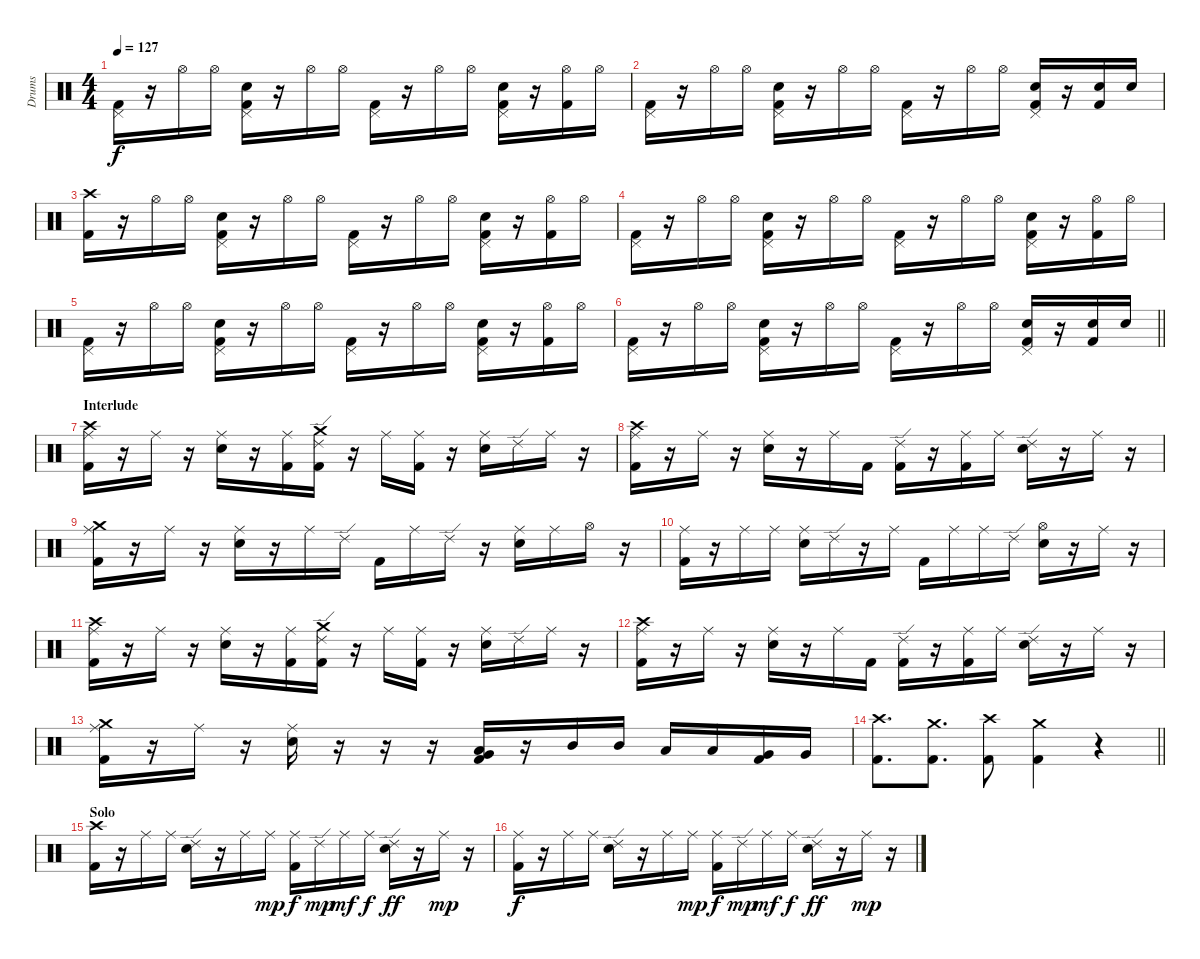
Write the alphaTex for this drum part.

\track ("Drums" "Drums") {instrument percussion}
\staff {score}
\articulation defaults
\ts (4 4)
\tempo 127
\clef neutral
\ks c
("Pedal Hi-Hat (hit)" "Kick (hit) 2").16{dy f} r.16 "Hi-Hat (open)".16 "Hi-Hat (open)".16 ("Pedal Hi-Hat (hit)" "Snare (hit) 2" "Kick (hit) 2").16 r.16 "Hi-Hat (open)".16 "Hi-Hat (open)".16 ("Pedal Hi-Hat (hit)" "Kick (hit) 2").16 r.16 "Hi-Hat (open)".16 "Hi-Hat (open)".16 ("Pedal Hi-Hat (hit)" "Snare (hit) 2" "Kick (hit) 2").16 r.16 ("Hi-Hat (open)" "Kick (hit) 2").16 "Hi-Hat (open)".16 |
("Pedal Hi-Hat (hit)" "Kick (hit) 2").16 r.16 "Hi-Hat (open)".16 "Hi-Hat (open)".16 ("Pedal Hi-Hat (hit)" "Snare (hit) 2" "Kick (hit) 2").16 r.16 "Hi-Hat (open)".16 "Hi-Hat (open)".16 ("Pedal Hi-Hat (hit)" "Kick (hit) 2").16 r.16 "Hi-Hat (open)".16 "Hi-Hat (open)".16 ("Pedal Hi-Hat (hit)" "Snare (hit) 2" "Kick (hit) 2").16 r.16 ("Snare (hit) 2" "Kick (hit) 2").16 "Snare (hit) 2".16 |
("Crash high (hit)" "Kick (hit) 2").16 r.16 "Hi-Hat (open)".16 "Hi-Hat (open)".16 ("Pedal Hi-Hat (hit)" "Snare (hit) 2" "Kick (hit) 2").16 r.16 "Hi-Hat (open)".16 "Hi-Hat (open)".16 ("Pedal Hi-Hat (hit)" "Kick (hit) 2").16 r.16 "Hi-Hat (open)".16 "Hi-Hat (open)".16 ("Pedal Hi-Hat (hit)" "Snare (hit) 2" "Kick (hit) 2").16 r.16 ("Hi-Hat (open)" "Kick (hit) 2").16 "Hi-Hat (open)".16 |
("Pedal Hi-Hat (hit)" "Kick (hit) 2").16 r.16 "Hi-Hat (open)".16 "Hi-Hat (open)".16 ("Pedal Hi-Hat (hit)" "Snare (hit) 2" "Kick (hit) 2").16 r.16 "Hi-Hat (open)".16 "Hi-Hat (open)".16 ("Pedal Hi-Hat (hit)" "Kick (hit) 2").16 r.16 "Hi-Hat (open)".16 "Hi-Hat (open)".16 ("Pedal Hi-Hat (hit)" "Snare (hit) 2" "Kick (hit) 2").16 r.16 ("Hi-Hat (open)" "Kick (hit) 2").16 "Hi-Hat (open)".16 |
("Pedal Hi-Hat (hit)" "Kick (hit) 2").16 r.16 "Hi-Hat (open)".16 "Hi-Hat (open)".16 ("Pedal Hi-Hat (hit)" "Snare (hit) 2" "Kick (hit) 2").16 r.16 "Hi-Hat (open)".16 "Hi-Hat (open)".16 ("Pedal Hi-Hat (hit)" "Kick (hit) 2").16 r.16 "Hi-Hat (open)".16 "Hi-Hat (open)".16 ("Pedal Hi-Hat (hit)" "Snare (hit) 2" "Kick (hit) 2").16 r.16 ("Hi-Hat (open)" "Kick (hit) 2").16 "Hi-Hat (open)".16 |
\barLineRight lightlight
("Pedal Hi-Hat (hit)" "Kick (hit) 2").16 r.16 "Hi-Hat (open)".16 "Hi-Hat (open)".16 ("Pedal Hi-Hat (hit)" "Snare (hit) 2" "Kick (hit) 2").16 r.16 "Hi-Hat (open)".16 "Hi-Hat (open)".16 ("Pedal Hi-Hat (hit)" "Kick (hit) 2").16 r.16 "Hi-Hat (open)".16 "Hi-Hat (open)".16 ("Pedal Hi-Hat (hit)" "Snare (hit) 2" "Kick (hit) 2").16 r.16 ("Snare (hit) 2" "Kick (hit) 2").16 "Snare (hit) 2".16 |
\section ("" "Interlude")
("Crash high (hit)" "Ride (middle)" "Kick (hit) 2").16 r.16 "Ride (middle)".16 r.16 ("Ride (middle)" "Snare (hit) 2").16 r.16 ("Ride (middle)" "Kick (hit) 2").16 ("Crash medium (hit)" "Ride (edge) 2" "Kick (hit) 2").16 r.16 "Ride (middle)".16 ("Ride (middle)" "Kick (hit) 2").16 r.16 ("Ride (middle)" "Snare (hit) 2").16 "Ride (edge) 2".16 "Ride (middle)".16 r.16 |
("Crash high (hit)" "Ride (middle)" "Kick (hit) 2").16 r.16 "Ride (middle)".16 r.16 ("Ride (middle)" "Snare (hit) 2").16 r.16 "Ride (middle)".16 "Kick (hit) 2".16 ("Ride (edge) 2" "Kick (hit) 2").16 r.16 ("Ride (middle)" "Kick (hit) 2").16 "Ride (middle)".16 ("Ride (edge) 2" "Snare (hit) 2").16 r.16 "Ride (middle)".16 r.16 |
("Crash medium (hit)" "Ride (middle)" "Kick (hit) 2").16 r.16 "Ride (middle)".16 r.16 ("Ride (middle)" "Snare (hit) 2").16 r.16 "Ride (middle)".16 "Ride (edge) 2".16 "Kick (hit) 2".16 "Ride (middle)".16 "Ride (edge) 2".16 r.16 ("Ride (middle)" "Snare (hit) 2").16 "Ride (middle)".16 "Hi-Hat (open)".16 r.16 |
("Ride (middle)" "Kick (hit) 2").16 r.16 "Ride (middle)".16 "Ride (middle)".16 ("Ride (middle)" "Snare (hit) 2").16 "Ride (edge) 2".16 r.16 "Ride (middle)".16 "Kick (hit) 2".16 "Ride (middle)".16 "Ride (middle)".16 "Ride (edge) 2".16 ("Hi-Hat (open)" "Snare (hit) 2").16 r.16 "Ride (middle)".16 r.16 |
("Crash high (hit)" "Ride (middle)" "Kick (hit) 2").16 r.16 "Ride (middle)".16 r.16 ("Ride (middle)" "Snare (hit) 2").16 r.16 ("Ride (middle)" "Kick (hit) 2").16 ("Crash medium (hit)" "Ride (edge) 2" "Kick (hit) 2").16 r.16 "Ride (middle)".16 ("Ride (middle)" "Kick (hit) 2").16 r.16 ("Ride (middle)" "Snare (hit) 2").16 "Ride (edge) 2".16 "Ride (middle)".16 r.16 |
("Crash high (hit)" "Ride (middle)" "Kick (hit) 2").16 r.16 "Ride (middle)".16 r.16 ("Ride (middle)" "Snare (hit) 2").16 r.16 "Ride (middle)".16 "Kick (hit) 2".16 ("Ride (edge) 2" "Kick (hit) 2").16 r.16 ("Ride (middle)" "Kick (hit) 2").16 "Ride (middle)".16 ("Ride (edge) 2" "Snare (hit) 2").16 r.16 "Ride (middle)".16 r.16 |
("Crash medium (hit)" "Ride (middle)" "Kick (hit) 2").16 r.16 "Ride (middle)".16 r.16 ("Ride (middle)" "Snare (hit) 2").16 r.16 r.16 r.16 ("Low Tom (hit)" "Very Low Tom (hit)" "Kick (hit) 2").16 r.16 "Mid Tom (hit)".16 "Mid Tom (hit)".16 "Low Tom (hit)".16 "Low Tom (hit)".16 ("Very Low Tom (hit)" "Kick (hit) 2").16 "Very Low Tom (hit)".16 |
\barLineRight lightlight
("Crash high (hit)" "Kick (hit) 2").8{d} ("Crash medium (hit)" "Kick (hit) 2").8{d} ("Crash high (hit)" "Kick (hit) 2").8 ("Crash medium (hit)" "Kick (hit) 2").4 r.4 |
\section ("" "Solo")
("Crash high (hit)" "Kick (hit) 2").16 r.16 "Ride (middle)".16 "Ride (middle)".16 ("Ride (edge) 2" "Snare (hit) 2").16 r.16 "Ride (middle)".16 "Ride (middle)".16{dy mp} ("Ride (middle)" "Kick (hit) 2").16{dy f} "Ride (edge) 2".16{dy mp} "Ride (middle)".16{dy mf} "Ride (middle)".16{dy f} ("Ride (edge) 2" "Snare (hit) 2").16{dy ff} r.16 "Ride (middle)".16{dy mp} r.16 |
("Ride (middle)" "Kick (hit) 2").16{dy f} r.16 "Ride (middle)".16 "Ride (middle)".16 ("Ride (edge) 2" "Snare (hit) 2").16 r.16 "Ride (middle)".16 "Ride (middle)".16{dy mp} ("Ride (middle)" "Kick (hit) 2").16{dy f} "Ride (edge) 2".16{dy mp} "Ride (middle)".16{dy mf} "Ride (middle)".16{dy f} ("Ride (edge) 2" "Snare (hit) 2").16{dy ff} r.16 "Ride (middle)".16{dy mp} r.16
